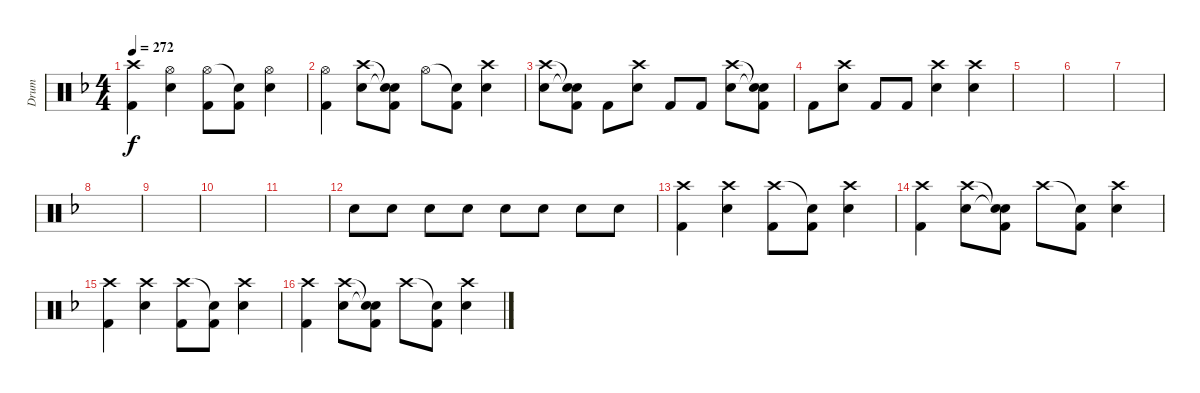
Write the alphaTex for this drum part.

\track ("Drum" "Drum") {instrument percussion}
\staff {score}
\articulation defaults
\ts (4 4)
\tempo 272
\clef neutral
\ks f
("Crash high (hit)" "Kick (hit) 2").4{dy f} ("Hi-Hat (open)" "Electric Snare (hit)").4 ("Hi-Hat (open)" "Kick (hit) 2").8 ("Snare (hit)"{t} "Kick (hit) 2").8 ("Hi-Hat (open)" "Electric Snare (hit)").4 |
("Hi-Hat (open)" "Kick (hit) 2").4 ("Crash high (hit)" "Electric Snare (hit)").8 ("Snare (hit)"{t} "Snare (hit)"{t} "Kick (hit) 2").8 "Hi-Hat (open)".8 ("Snare (hit)"{t} "Kick (hit) 2").8 ("Crash high (hit)" "Electric Snare (hit)").4 |
("Crash high (hit)" "Electric Snare (hit)").8 ("Snare (hit)"{t} "Snare (hit)"{t} "Kick (hit) 2").8 "Kick (hit) 2".8 ("Crash high (hit)" "Electric Snare (hit)").8 "Kick (hit) 2".8 "Kick (hit) 2".8 ("Crash high (hit)" "Electric Snare (hit)").8 ("Snare (hit)"{t} "Snare (hit)"{t} "Kick (hit) 2").8 |
"Kick (hit) 2".8 ("Crash high (hit)" "Electric Snare (hit)").8 "Kick (hit) 2".8 "Kick (hit) 2".8 ("Crash high (hit)" "Electric Snare (hit)").4 ("Crash high (hit)" "Electric Snare (hit)").4 |
|
|
|
|
|
|
|
"Electric Snare (hit)".8 "Electric Snare (hit)".8 "Electric Snare (hit)".8 "Electric Snare (hit)".8 "Electric Snare (hit)".8 "Electric Snare (hit)".8 "Electric Snare (hit)".8 "Electric Snare (hit)".8 |
("Crash high (hit)" "Kick (hit) 2").4 ("Crash high (hit)" "Electric Snare (hit)").4 ("Crash high (hit)" "Kick (hit) 2").8 ("Snare (hit)"{t} "Kick (hit) 2").8 ("Crash high (hit)" "Electric Snare (hit)").4 |
("Crash high (hit)" "Kick (hit) 2").4 ("Crash high (hit)" "Electric Snare (hit)").8 ("Snare (hit)"{t} "Snare (hit)"{t} "Kick (hit) 2").8 "Crash high (hit)".8 ("Snare (hit)"{t} "Kick (hit) 2").8 ("Crash high (hit)" "Electric Snare (hit)").4 |
("Crash high (hit)" "Kick (hit) 2").4 ("Crash high (hit)" "Electric Snare (hit)").4 ("Crash high (hit)" "Kick (hit) 2").8 ("Snare (hit)"{t} "Kick (hit) 2").8 ("Crash high (hit)" "Electric Snare (hit)").4 |
("Crash high (hit)" "Kick (hit) 2").4 ("Crash high (hit)" "Electric Snare (hit)").8 ("Snare (hit)"{t} "Snare (hit)"{t} "Kick (hit) 2").8 "Crash high (hit)".8 ("Snare (hit)"{t} "Kick (hit) 2").8 ("Crash high (hit)" "Electric Snare (hit)").4
